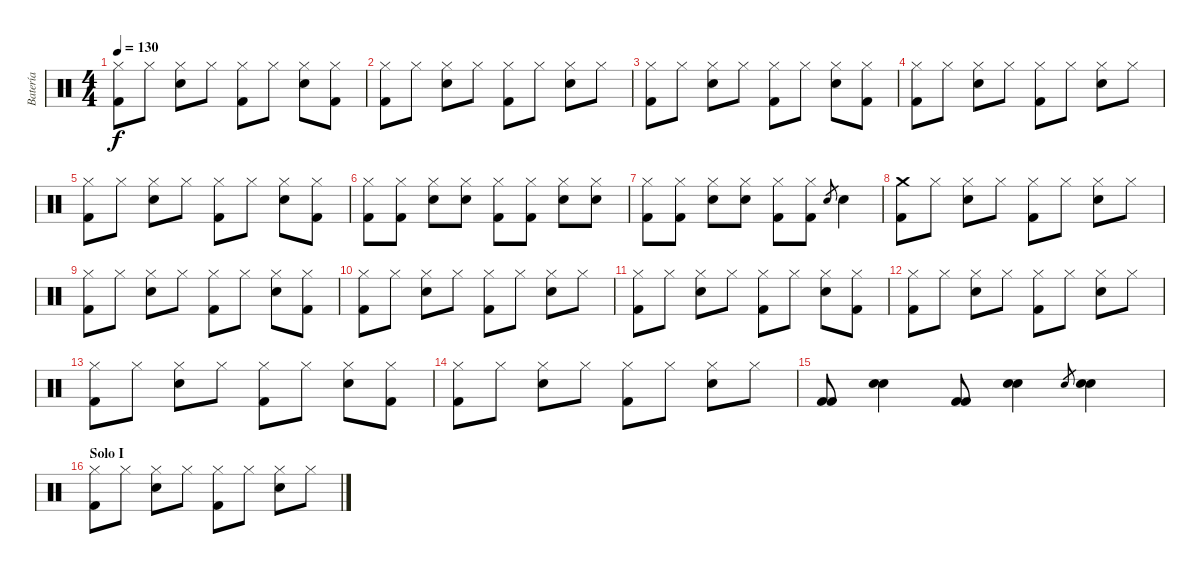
\track ("Batería" "Batería") {instrument percussion}
\staff {score}
\articulation defaults
\ts (4 4)
\tempo 130
\clef neutral
\ks c
("Hi-Hat (closed)" "Kick (hit) 2").8{dy f} "Hi-Hat (closed)".8 ("Hi-Hat (closed)" "Snare (hit) 2").8 "Hi-Hat (closed)".8 ("Hi-Hat (closed)" "Kick (hit) 2").8 "Hi-Hat (closed)".8 ("Hi-Hat (closed)" "Snare (hit) 2").8 ("Hi-Hat (closed)" "Kick (hit) 2").8 |
("Hi-Hat (closed)" "Kick (hit) 2").8 "Hi-Hat (closed)".8 ("Hi-Hat (closed)" "Snare (hit) 2").8 "Hi-Hat (closed)".8 ("Hi-Hat (closed)" "Kick (hit) 2").8 "Hi-Hat (closed)".8 ("Hi-Hat (closed)" "Snare (hit) 2").8 "Hi-Hat (closed)".8 |
("Hi-Hat (closed)" "Kick (hit) 2").8 "Hi-Hat (closed)".8 ("Hi-Hat (closed)" "Snare (hit) 2").8 "Hi-Hat (closed)".8 ("Hi-Hat (closed)" "Kick (hit) 2").8 "Hi-Hat (closed)".8 ("Hi-Hat (closed)" "Snare (hit) 2").8 ("Hi-Hat (closed)" "Kick (hit) 2").8 |
("Hi-Hat (closed)" "Kick (hit) 2").8 "Hi-Hat (closed)".8 ("Hi-Hat (closed)" "Snare (hit) 2").8 "Hi-Hat (closed)".8 ("Hi-Hat (closed)" "Kick (hit) 2").8 "Hi-Hat (closed)".8 ("Hi-Hat (closed)" "Snare (hit) 2").8 "Hi-Hat (closed)".8 |
("Hi-Hat (closed)" "Kick (hit) 2").8 "Hi-Hat (closed)".8 ("Hi-Hat (closed)" "Snare (hit) 2").8 "Hi-Hat (closed)".8 ("Hi-Hat (closed)" "Kick (hit) 2").8 "Hi-Hat (closed)".8 ("Hi-Hat (closed)" "Snare (hit) 2").8 ("Hi-Hat (closed)" "Kick (hit) 2").8 |
("Hi-Hat (closed)" "Kick (hit) 2").8 ("Hi-Hat (closed)" "Kick (hit) 2").8 ("Hi-Hat (closed)" "Snare (hit) 2").8 ("Hi-Hat (closed)" "Snare (hit) 2").8 ("Hi-Hat (closed)" "Kick (hit) 2").8 ("Hi-Hat (closed)" "Kick (hit) 2").8 ("Hi-Hat (closed)" "Snare (hit) 2").8 ("Hi-Hat (closed)" "Snare (hit) 2").8 |
("Hi-Hat (closed)" "Kick (hit) 2").8 ("Hi-Hat (closed)" "Kick (hit) 2").8 ("Hi-Hat (closed)" "Snare (hit) 2").8 ("Hi-Hat (closed)" "Snare (hit) 2").8 ("Hi-Hat (closed)" "Kick (hit) 2").8 ("Hi-Hat (closed)" "Kick (hit) 2").8 "Snare (hit) 2".8{gr} "Snare (hit) 2".4 |
("Crash medium (hit)" "Kick (hit) 2").8 "Hi-Hat (closed)".8 ("Hi-Hat (closed)" "Snare (hit) 2").8 "Hi-Hat (closed)".8 ("Hi-Hat (closed)" "Kick (hit) 2").8 "Hi-Hat (closed)".8 ("Hi-Hat (closed)" "Snare (hit) 2").8 "Hi-Hat (closed)".8 |
("Hi-Hat (closed)" "Kick (hit) 2").8 "Hi-Hat (closed)".8 ("Hi-Hat (closed)" "Snare (hit) 2").8 "Hi-Hat (closed)".8 ("Hi-Hat (closed)" "Kick (hit) 2").8 "Hi-Hat (closed)".8 ("Hi-Hat (closed)" "Snare (hit) 2").8 ("Hi-Hat (closed)" "Kick (hit) 2").8 |
("Hi-Hat (closed)" "Kick (hit) 2").8 "Hi-Hat (closed)".8 ("Hi-Hat (closed)" "Snare (hit) 2").8 "Hi-Hat (closed)".8 ("Hi-Hat (closed)" "Kick (hit) 2").8 "Hi-Hat (closed)".8 ("Hi-Hat (closed)" "Snare (hit) 2").8 "Hi-Hat (closed)".8 |
("Hi-Hat (closed)" "Kick (hit) 2").8 "Hi-Hat (closed)".8 ("Hi-Hat (closed)" "Snare (hit) 2").8 "Hi-Hat (closed)".8 ("Hi-Hat (closed)" "Kick (hit) 2").8 "Hi-Hat (closed)".8 ("Hi-Hat (closed)" "Snare (hit) 2").8 ("Hi-Hat (closed)" "Kick (hit) 2").8 |
("Hi-Hat (closed)" "Kick (hit) 2").8 "Hi-Hat (closed)".8 ("Hi-Hat (closed)" "Snare (hit) 2").8 "Hi-Hat (closed)".8 ("Hi-Hat (closed)" "Kick (hit) 2").8 "Hi-Hat (closed)".8 ("Hi-Hat (closed)" "Snare (hit) 2").8 "Hi-Hat (closed)".8 |
("Hi-Hat (closed)" "Kick (hit) 2").8 "Hi-Hat (closed)".8 ("Hi-Hat (closed)" "Snare (hit) 2").8 "Hi-Hat (closed)".8 ("Hi-Hat (closed)" "Kick (hit) 2").8 "Hi-Hat (closed)".8 ("Hi-Hat (closed)" "Snare (hit) 2").8 ("Hi-Hat (closed)" "Kick (hit) 2").8 |
("Hi-Hat (closed)" "Kick (hit) 2").8 "Hi-Hat (closed)".8 ("Hi-Hat (closed)" "Snare (hit) 2").8 "Hi-Hat (closed)".8 ("Hi-Hat (closed)" "Kick (hit) 2").8 "Hi-Hat (closed)".8 ("Hi-Hat (closed)" "Snare (hit) 2").8 "Hi-Hat (closed)".8 |
("Kick (hit) 2" "Kick (hit) 2").8 ("Snare (hit) 2" "Snare (hit) 2").4 ("Kick (hit) 2" "Kick (hit) 2").8 ("Snare (hit) 2" "Snare (hit) 2").4 "Snare (hit) 2".8{gr} ("Snare (hit) 2" "Snare (hit) 2").4 |
\section ("" "Solo I")
("Hi-Hat (closed)" "Kick (hit) 2").8 "Hi-Hat (closed)".8 ("Hi-Hat (closed)" "Snare (hit) 2").8 "Hi-Hat (closed)".8 ("Hi-Hat (closed)" "Kick (hit) 2").8 "Hi-Hat (closed)".8 ("Hi-Hat (closed)" "Snare (hit) 2").8 "Hi-Hat (closed)".8
